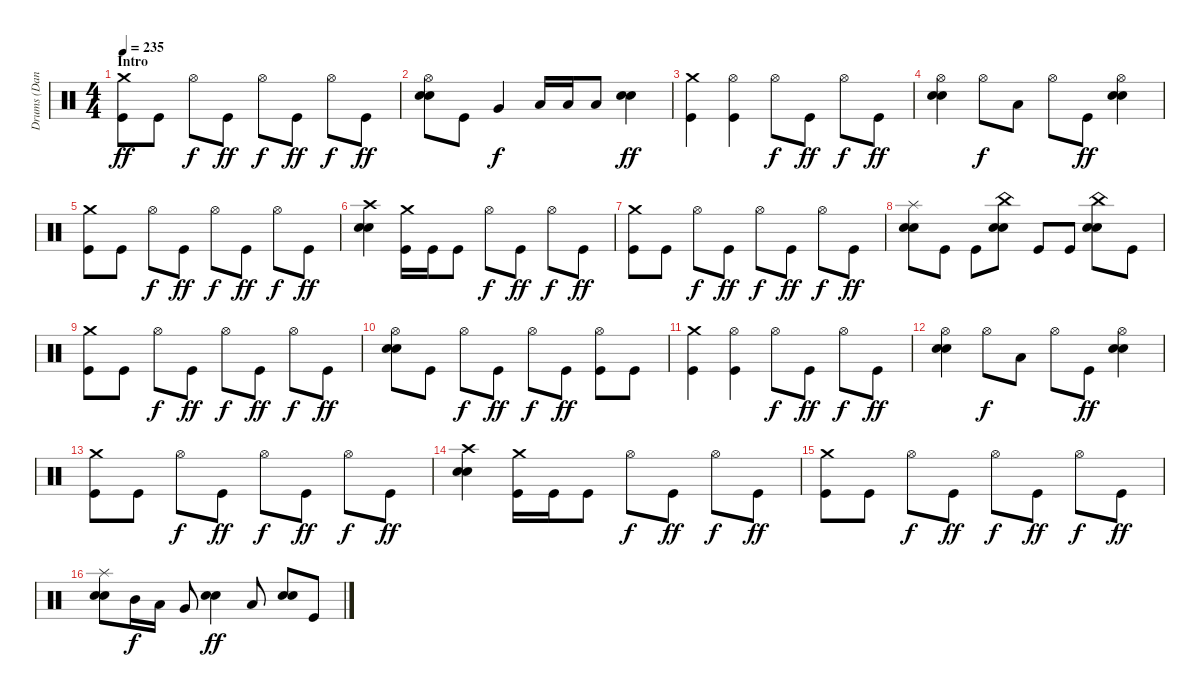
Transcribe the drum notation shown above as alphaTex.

\track ("Drums (Dan)" "Drums (Dan") {instrument percussion}
\staff {score}
\articulation defaults
\ts (4 4)
\section ("" "Intro")
\tempo 235
\clef neutral
\ks c
("Kick (hit)" "Crash medium (hit)").8{dy ff} "Kick (hit)".8 "Hi-Hat (open)".8{dy f} "Kick (hit)".8{dy ff} "Hi-Hat (open)".8{dy f} "Kick (hit)".8{dy ff} "Hi-Hat (open)".8{dy f} "Kick (hit)".8{dy ff} |
("Electric Snare (hit)" "Electric Snare (hit)" "Hi-Hat (open)").8 "Kick (hit)".8 "Very Low Tom (hit)".4{dy f} "Low Floor Tom (hit)".16 "Low Floor Tom (hit)".16 "Low Floor Tom (hit)".8 ("Electric Snare (hit)" "Electric Snare (hit)").4{dy ff} |
("Kick (hit)" "Crash medium (hit)").4 ("Kick (hit)" "Hi-Hat (open)").4 "Hi-Hat (open)".8{dy f} "Kick (hit)".8{dy ff} "Hi-Hat (open)".8{dy f} "Kick (hit)".8{dy ff} |
("Electric Snare (hit)" "Electric Snare (hit)" "Hi-Hat (open)").4 "Hi-Hat (open)".8{dy f} "Low Floor Tom (hit)".8 "Hi-Hat (open)".8 "Kick (hit)".8{dy ff} ("Electric Snare (hit)" "Electric Snare (hit)" "Hi-Hat (open)").4 |
("Kick (hit)" "Crash medium (hit)").8 "Kick (hit)".8 "Hi-Hat (open)".8{dy f} "Kick (hit)".8{dy ff} "Hi-Hat (open)".8{dy f} "Kick (hit)".8{dy ff} "Hi-Hat (open)".8{dy f} "Kick (hit)".8{dy ff} |
("Electric Snare (hit)" "Electric Snare (hit)" "Crash high (hit)").4 ("Kick (hit)" "Crash medium (hit)").16 "Kick (hit)".16 "Kick (hit)".8 "Hi-Hat (open)".8{dy f} "Kick (hit)".8{dy ff} "Hi-Hat (open)".8{dy f} "Kick (hit)".8{dy ff} |
("Kick (hit)" "Crash medium (hit)").8 "Kick (hit)".8 "Hi-Hat (open)".8{dy f} "Kick (hit)".8{dy ff} "Hi-Hat (open)".8{dy f} "Kick (hit)".8{dy ff} "Hi-Hat (open)".8{dy f} "Kick (hit)".8{dy ff} |
("Electric Snare (hit)" "Electric Snare (hit)" "Splash (hit)").8 "Kick (hit)".8 "Kick (hit)".8 ("Electric Snare (hit)" "Electric Snare (hit)" "China (hit)").8 "Kick (hit)".8 "Kick (hit)".8 ("Electric Snare (hit)" "Electric Snare (hit)" "China (hit)").8 "Kick (hit)".8 |
("Kick (hit)" "Crash medium (hit)").8 "Kick (hit)".8 "Hi-Hat (open)".8{dy f} "Kick (hit)".8{dy ff} "Hi-Hat (open)".8{dy f} "Kick (hit)".8{dy ff} "Hi-Hat (open)".8{dy f} "Kick (hit)".8{dy ff} |
("Electric Snare (hit)" "Electric Snare (hit)" "Hi-Hat (open)").8 "Kick (hit)".8 "Hi-Hat (open)".8{dy f} "Kick (hit)".8{dy ff} "Hi-Hat (open)".8{dy f} "Kick (hit)".8{dy ff} ("Kick (hit)" "Hi-Hat (open)").8 "Kick (hit)".8 |
("Kick (hit)" "Crash medium (hit)").4 ("Kick (hit)" "Hi-Hat (open)").4 "Hi-Hat (open)".8{dy f} "Kick (hit)".8{dy ff} "Hi-Hat (open)".8{dy f} "Kick (hit)".8{dy ff} |
("Electric Snare (hit)" "Electric Snare (hit)" "Hi-Hat (open)").4 "Hi-Hat (open)".8{dy f} "Low Floor Tom (hit)".8 "Hi-Hat (open)".8 "Kick (hit)".8{dy ff} ("Electric Snare (hit)" "Electric Snare (hit)" "Hi-Hat (open)").4 |
("Kick (hit)" "Crash medium (hit)").8 "Kick (hit)".8 "Hi-Hat (open)".8{dy f} "Kick (hit)".8{dy ff} "Hi-Hat (open)".8{dy f} "Kick (hit)".8{dy ff} "Hi-Hat (open)".8{dy f} "Kick (hit)".8{dy ff} |
("Electric Snare (hit)" "Electric Snare (hit)" "Crash high (hit)").4 ("Kick (hit)" "Crash medium (hit)").16 "Kick (hit)".16 "Kick (hit)".8 "Hi-Hat (open)".8{dy f} "Kick (hit)".8{dy ff} "Hi-Hat (open)".8{dy f} "Kick (hit)".8{dy ff} |
("Kick (hit)" "Crash medium (hit)").8 "Kick (hit)".8 "Hi-Hat (open)".8{dy f} "Kick (hit)".8{dy ff} "Hi-Hat (open)".8{dy f} "Kick (hit)".8{dy ff} "Hi-Hat (open)".8{dy f} "Kick (hit)".8{dy ff} |
("Electric Snare (hit)" "Electric Snare (hit)" "Splash (hit)").8 "Mid Tom (hit)".16{dy f} "Low Tom (hit)".16 "Very Low Tom (hit)".8 ("Electric Snare (hit)" "Electric Snare (hit)").4{dy ff} "Low Floor Tom (hit)".8 ("Electric Snare (hit)" "Electric Snare (hit)").8 "Kick (hit)".8
